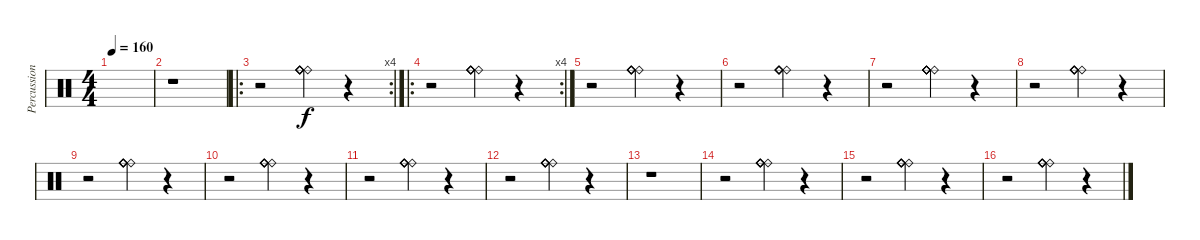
\track ("Percussion" "Percussion") {instrument percussion}
\staff {score}
\articulation defaults
\ts (4 4)
\tempo 160
\clef neutral
\ks c
|
r.1 |
\ro
\rc 4
r.2 ("Ride (bell)" "Ride (bell)" "Ride (bell)" "Ride (bell)" "Ride (bell)" "Ride (bell)").4 r.4 |
\ro
\rc 4
r.2 ("Ride (bell)" "Ride (bell)" "Ride (bell)" "Ride (bell)" "Ride (bell)" "Ride (bell)").4 r.4 |
r.2 ("Ride (bell)" "Ride (bell)" "Ride (bell)" "Ride (bell)" "Ride (bell)" "Ride (bell)").4 r.4 |
r.2 ("Ride (bell)" "Ride (bell)" "Ride (bell)" "Ride (bell)" "Ride (bell)" "Ride (bell)").4 r.4 |
r.2 ("Ride (bell)" "Ride (bell)" "Ride (bell)" "Ride (bell)" "Ride (bell)" "Ride (bell)").4 r.4 |
r.2 ("Ride (bell)" "Ride (bell)" "Ride (bell)" "Ride (bell)" "Ride (bell)" "Ride (bell)").4 r.4 |
r.2 ("Ride (bell)" "Ride (bell)" "Ride (bell)" "Ride (bell)" "Ride (bell)" "Ride (bell)").4 r.4 |
r.2 ("Ride (bell)" "Ride (bell)" "Ride (bell)" "Ride (bell)" "Ride (bell)" "Ride (bell)").4 r.4 |
r.2 ("Ride (bell)" "Ride (bell)" "Ride (bell)" "Ride (bell)" "Ride (bell)" "Ride (bell)").4 r.4 |
r.2 ("Ride (bell)" "Ride (bell)" "Ride (bell)" "Ride (bell)" "Ride (bell)" "Ride (bell)").4 r.4 |
r.1 |
r.2 ("Ride (bell)" "Ride (bell)" "Ride (bell)" "Ride (bell)" "Ride (bell)" "Ride (bell)").4 r.4 |
r.2 ("Ride (bell)" "Ride (bell)" "Ride (bell)" "Ride (bell)" "Ride (bell)" "Ride (bell)").4 r.4 |
r.2 ("Ride (bell)" "Ride (bell)" "Ride (bell)" "Ride (bell)" "Ride (bell)" "Ride (bell)").4 r.4
